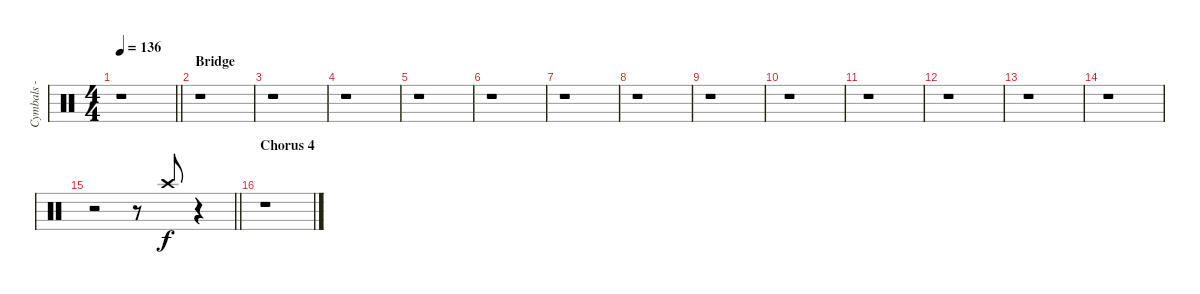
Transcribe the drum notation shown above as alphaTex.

\track ("Cymbals - crash - right" "Cymbals - ") {instrument percussion}
\staff {score}
\articulation defaults
\ts (4 4)
\tempo 136
\clef neutral
\barLineRight lightlight
\ks c
r.1{dy f} |
\section ("" "Bridge")
r.1 |
r.1 |
r.1 |
r.1 |
r.1 |
r.1 |
r.1 |
r.1 |
r.1 |
r.1 |
r.1 |
r.1 |
r.1 |
\barLineRight lightlight
r.2 r.8 "Crash high (hit)".8{volume 0 beam Up} r.4 |
\section ("" "Chorus 4")
r.1
